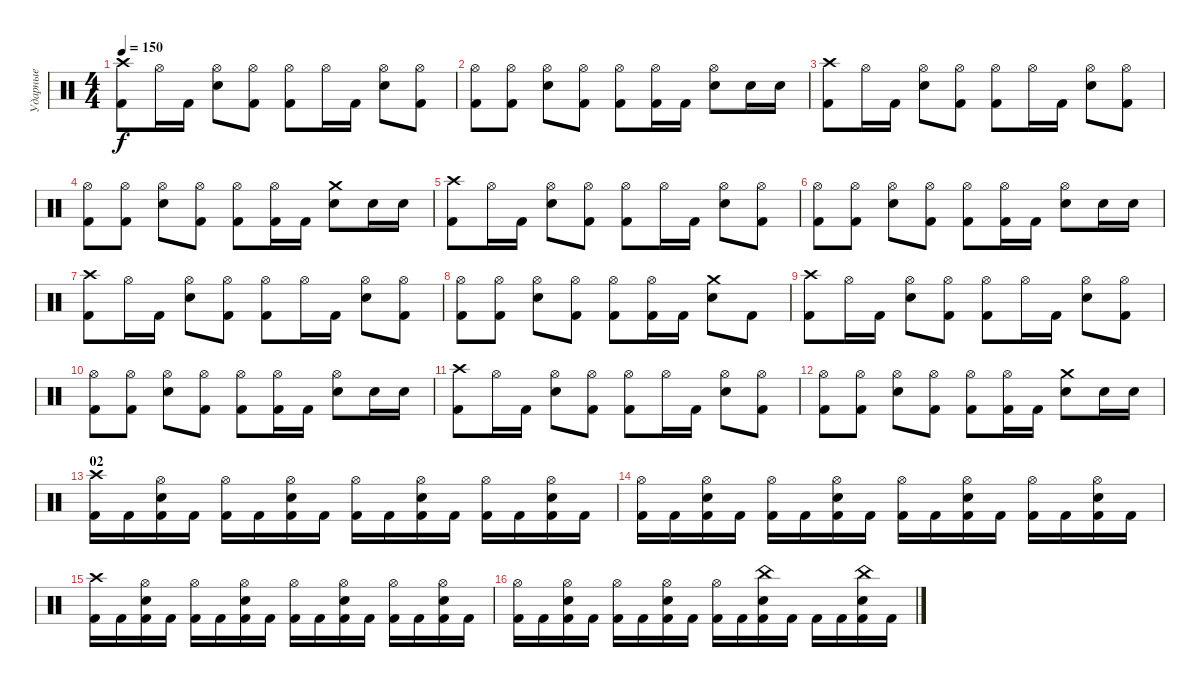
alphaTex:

\track ("Ударные" "Ударные") {instrument percussion}
\staff {score}
\articulation defaults
\ts (4 4)
\tempo 150
\clef neutral
\ks c
("Crash high (hit)" "Kick (hit) 2").8{dy f} "Hi-Hat (open)".16 "Kick (hit) 2".16 ("Hi-Hat (open)" "Electric Snare (hit)").8 ("Hi-Hat (open)" "Kick (hit) 2").8 ("Hi-Hat (open)" "Kick (hit) 2").8 "Hi-Hat (open)".16 "Kick (hit) 2".16 ("Hi-Hat (open)" "Electric Snare (hit)").8 ("Hi-Hat (open)" "Kick (hit) 2").8 |
("Hi-Hat (open)" "Kick (hit) 2").8 ("Hi-Hat (open)" "Kick (hit) 2").8 ("Hi-Hat (open)" "Electric Snare (hit)").8 ("Hi-Hat (open)" "Kick (hit) 2").8 ("Hi-Hat (open)" "Kick (hit) 2").8 ("Hi-Hat (open)" "Kick (hit) 2").16 "Kick (hit) 2".16 ("Hi-Hat (open)" "Electric Snare (hit)").8 "Electric Snare (hit)".16 "Electric Snare (hit)".16 |
("Crash high (hit)" "Kick (hit) 2").8 "Hi-Hat (open)".16 "Kick (hit) 2".16 ("Hi-Hat (open)" "Electric Snare (hit)").8 ("Hi-Hat (open)" "Kick (hit) 2").8 ("Hi-Hat (open)" "Kick (hit) 2").8 "Hi-Hat (open)".16 "Kick (hit) 2".16 ("Hi-Hat (open)" "Electric Snare (hit)").8 ("Hi-Hat (open)" "Kick (hit) 2").8 |
("Hi-Hat (open)" "Kick (hit) 2").8 ("Hi-Hat (open)" "Kick (hit) 2").8 ("Hi-Hat (open)" "Electric Snare (hit)").8 ("Hi-Hat (open)" "Kick (hit) 2").8 ("Hi-Hat (open)" "Kick (hit) 2").8 ("Hi-Hat (open)" "Kick (hit) 2").16 "Kick (hit) 2".16 ("Crash medium (hit)" "Electric Snare (hit)").8 "Electric Snare (hit)".16 "Electric Snare (hit)".16 |
("Crash high (hit)" "Kick (hit) 2").8 "Hi-Hat (open)".16 "Kick (hit) 2".16 ("Hi-Hat (open)" "Electric Snare (hit)").8 ("Hi-Hat (open)" "Kick (hit) 2").8 ("Hi-Hat (open)" "Kick (hit) 2").8 "Hi-Hat (open)".16 "Kick (hit) 2".16 ("Hi-Hat (open)" "Electric Snare (hit)").8 ("Hi-Hat (open)" "Kick (hit) 2").8 |
("Hi-Hat (open)" "Kick (hit) 2").8 ("Hi-Hat (open)" "Kick (hit) 2").8 ("Hi-Hat (open)" "Electric Snare (hit)").8 ("Hi-Hat (open)" "Kick (hit) 2").8 ("Hi-Hat (open)" "Kick (hit) 2").8 ("Hi-Hat (open)" "Kick (hit) 2").16 "Kick (hit) 2".16 ("Hi-Hat (open)" "Electric Snare (hit)").8 "Electric Snare (hit)".16 "Electric Snare (hit)".16 |
("Crash high (hit)" "Kick (hit) 2").8 "Hi-Hat (open)".16 "Kick (hit) 2".16 ("Hi-Hat (open)" "Electric Snare (hit)").8 ("Hi-Hat (open)" "Kick (hit) 2").8 ("Hi-Hat (open)" "Kick (hit) 2").8 "Hi-Hat (open)".16 "Kick (hit) 2".16 ("Hi-Hat (open)" "Electric Snare (hit)").8 ("Hi-Hat (open)" "Kick (hit) 2").8 |
("Hi-Hat (open)" "Kick (hit) 2").8 ("Hi-Hat (open)" "Kick (hit) 2").8 ("Hi-Hat (open)" "Electric Snare (hit)").8 ("Hi-Hat (open)" "Kick (hit) 2").8 ("Hi-Hat (open)" "Kick (hit) 2").8 ("Hi-Hat (open)" "Kick (hit) 2").16 "Kick (hit) 2".16 ("Crash medium (hit)" "Electric Snare (hit)").8 "Kick (hit) 2".8 |
("Crash high (hit)" "Kick (hit) 2").8 "Hi-Hat (open)".16 "Kick (hit) 2".16 ("Hi-Hat (open)" "Electric Snare (hit)").8 ("Hi-Hat (open)" "Kick (hit) 2").8 ("Hi-Hat (open)" "Kick (hit) 2").8 "Hi-Hat (open)".16 "Kick (hit) 2".16 ("Hi-Hat (open)" "Electric Snare (hit)").8 ("Hi-Hat (open)" "Kick (hit) 2").8 |
("Hi-Hat (open)" "Kick (hit) 2").8 ("Hi-Hat (open)" "Kick (hit) 2").8 ("Hi-Hat (open)" "Electric Snare (hit)").8 ("Hi-Hat (open)" "Kick (hit) 2").8 ("Hi-Hat (open)" "Kick (hit) 2").8 ("Hi-Hat (open)" "Kick (hit) 2").16 "Kick (hit) 2".16 ("Hi-Hat (open)" "Electric Snare (hit)").8 "Electric Snare (hit)".16 "Electric Snare (hit)".16 |
("Crash high (hit)" "Kick (hit) 2").8 "Hi-Hat (open)".16 "Kick (hit) 2".16 ("Hi-Hat (open)" "Electric Snare (hit)").8 ("Hi-Hat (open)" "Kick (hit) 2").8 ("Hi-Hat (open)" "Kick (hit) 2").8 "Hi-Hat (open)".16 "Kick (hit) 2".16 ("Hi-Hat (open)" "Electric Snare (hit)").8 ("Hi-Hat (open)" "Kick (hit) 2").8 |
("Hi-Hat (open)" "Kick (hit) 2").8 ("Hi-Hat (open)" "Kick (hit) 2").8 ("Hi-Hat (open)" "Electric Snare (hit)").8 ("Hi-Hat (open)" "Kick (hit) 2").8 ("Hi-Hat (open)" "Kick (hit) 2").8 ("Hi-Hat (open)" "Kick (hit) 2").16 "Kick (hit) 2".16 ("Crash medium (hit)" "Electric Snare (hit)").8 "Electric Snare (hit)".16 "Electric Snare (hit)".16 |
\section ("" "02")
("Crash high (hit)" "Kick (hit) 2").16 "Kick (hit) 2".16 ("Hi-Hat (open)" "Electric Snare (hit)" "Kick (hit) 2").16 "Kick (hit) 2".16 ("Hi-Hat (open)" "Kick (hit) 2").16 "Kick (hit) 2".16 ("Hi-Hat (open)" "Electric Snare (hit)" "Kick (hit) 2").16 "Kick (hit) 2".16 ("Hi-Hat (open)" "Kick (hit) 2").16 "Kick (hit) 2".16 ("Hi-Hat (open)" "Electric Snare (hit)" "Kick (hit) 2").16 "Kick (hit) 2".16 ("Hi-Hat (open)" "Kick (hit) 2").16 "Kick (hit) 2".16 ("Hi-Hat (open)" "Electric Snare (hit)" "Kick (hit) 2").16 "Kick (hit) 2".16 |
("Hi-Hat (open)" "Kick (hit) 2").16 "Kick (hit) 2".16 ("Hi-Hat (open)" "Electric Snare (hit)" "Kick (hit) 2").16 "Kick (hit) 2".16 ("Hi-Hat (open)" "Kick (hit) 2").16 "Kick (hit) 2".16 ("Hi-Hat (open)" "Electric Snare (hit)" "Kick (hit) 2").16 "Kick (hit) 2".16 ("Hi-Hat (open)" "Kick (hit) 2").16 "Kick (hit) 2".16 ("Hi-Hat (open)" "Electric Snare (hit)" "Kick (hit) 2").16 "Kick (hit) 2".16 ("Hi-Hat (open)" "Kick (hit) 2").16 "Kick (hit) 2".16 ("Hi-Hat (open)" "Electric Snare (hit)" "Kick (hit) 2").16 "Kick (hit) 2".16 |
("Crash high (hit)" "Kick (hit) 2").16 "Kick (hit) 2".16 ("Hi-Hat (open)" "Electric Snare (hit)" "Kick (hit) 2").16 "Kick (hit) 2".16 ("Hi-Hat (open)" "Kick (hit) 2").16 "Kick (hit) 2".16 ("Hi-Hat (open)" "Electric Snare (hit)" "Kick (hit) 2").16 "Kick (hit) 2".16 ("Hi-Hat (open)" "Kick (hit) 2").16 "Kick (hit) 2".16 ("Hi-Hat (open)" "Electric Snare (hit)" "Kick (hit) 2").16 "Kick (hit) 2".16 ("Hi-Hat (open)" "Kick (hit) 2").16 "Kick (hit) 2".16 ("Hi-Hat (open)" "Electric Snare (hit)" "Kick (hit) 2").16 "Kick (hit) 2".16 |
("Hi-Hat (open)" "Kick (hit) 2").16 "Kick (hit) 2".16 ("Hi-Hat (open)" "Electric Snare (hit)" "Kick (hit) 2").16 "Kick (hit) 2".16 ("Hi-Hat (open)" "Kick (hit) 2").16 "Kick (hit) 2".16 ("Hi-Hat (open)" "Electric Snare (hit)" "Kick (hit) 2").16 "Kick (hit) 2".16 ("Hi-Hat (open)" "Kick (hit) 2").16 "Kick (hit) 2".16 ("China (hit)" "Electric Snare (hit)" "Kick (hit) 2").16 "Kick (hit) 2".16 "Kick (hit) 2".16 "Kick (hit) 2".16 ("China (hit)" "Electric Snare (hit)" "Kick (hit) 2").16 "Kick (hit) 2".16
